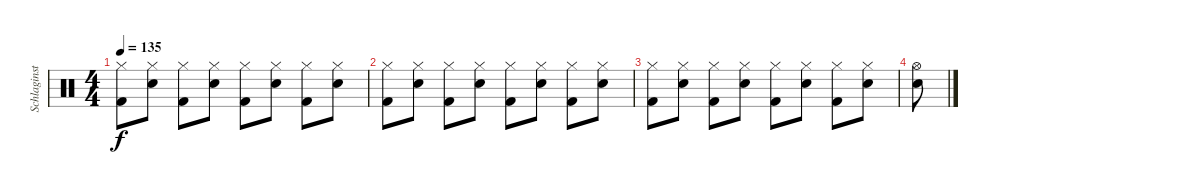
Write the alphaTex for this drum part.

\track ("Schlaginstrumente - Auswahl" "Schlaginst") {instrument percussion}
\staff {score}
\articulation defaults
\ts (4 4)
\tempo 135
\clef neutral
\ks c
("Hi-Hat (closed)" "Kick (hit) 2").8{dy f} ("Hi-Hat (closed)" "Snare (hit) 2").8 ("Hi-Hat (closed)" "Kick (hit) 2").8 ("Hi-Hat (closed)" "Snare (hit) 2").8 ("Hi-Hat (closed)" "Kick (hit) 2").8 ("Hi-Hat (closed)" "Snare (hit) 2").8 ("Hi-Hat (closed)" "Kick (hit) 2").8 ("Hi-Hat (closed)" "Snare (hit) 2").8 |
("Hi-Hat (closed)" "Kick (hit) 2").8 ("Hi-Hat (closed)" "Snare (hit) 2").8 ("Hi-Hat (closed)" "Kick (hit) 2").8 ("Hi-Hat (closed)" "Snare (hit) 2").8 ("Hi-Hat (closed)" "Kick (hit) 2").8 ("Hi-Hat (closed)" "Snare (hit) 2").8 ("Hi-Hat (closed)" "Kick (hit) 2").8 ("Hi-Hat (closed)" "Snare (hit) 2").8 |
("Hi-Hat (closed)" "Kick (hit) 2").8 ("Hi-Hat (closed)" "Snare (hit) 2").8 ("Hi-Hat (closed)" "Kick (hit) 2").8 ("Hi-Hat (closed)" "Snare (hit) 2").8 ("Hi-Hat (closed)" "Kick (hit) 2").8 ("Hi-Hat (closed)" "Snare (hit) 2").8 ("Hi-Hat (closed)" "Kick (hit) 2").8 ("Hi-Hat (closed)" "Snare (hit) 2").8 |
("Hi-Hat (open)" "Snare (hit) 2").8
